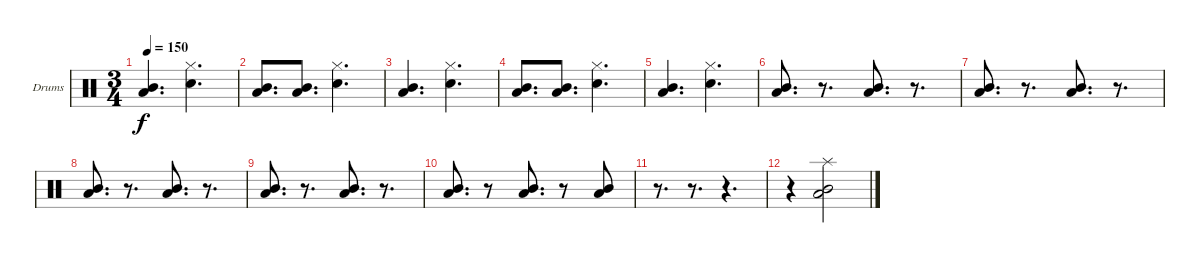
\defaultSystemsLayout 4
\bracketExtendMode groupsimilarinstruments
\firstSystemTrackNameOrientation horizontal
\otherSystemsTrackNameOrientation horizontal
\track ("Drumkit" "Drums") {instrument percussion}
\staff {score}
\articulation defaults
\ts (3 4)
\tempo 150
\clef neutral
\ks c
("Low Tom (hit)" "Mid Tom (hit)").4{d dy f} ("Snare (hit) 2" "Hi-Hat (closed)").4{d} |
("Low Tom (hit)" "Mid Tom (hit)").8{d} ("Mid Tom (hit)" "Low Tom (hit)").8{d} ("Snare (hit) 2" "Hi-Hat (closed)").4{d} |
("Low Tom (hit)" "Mid Tom (hit)").4{d} ("Snare (hit) 2" "Hi-Hat (closed)").4{d} |
("Low Tom (hit)" "Mid Tom (hit)").8{d} ("Mid Tom (hit)" "Low Tom (hit)").8{d} ("Snare (hit) 2" "Hi-Hat (closed)").4{d} |
("Low Tom (hit)" "Mid Tom (hit)").4{d} ("Snare (hit) 2" "Hi-Hat (closed)").4{d} |
("Mid Tom (hit)" "Low Tom (hit)").8{d} r.8{d} ("Low Tom (hit)" "Mid Tom (hit)").8{d} r.8{d} |
("Mid Tom (hit)" "Low Tom (hit)").8{d} r.8{d} ("Low Tom (hit)" "Mid Tom (hit)").8{d} r.8{d} |
("Mid Tom (hit)" "Low Tom (hit)").8{d} r.8{d} ("Low Tom (hit)" "Mid Tom (hit)").8{d} r.8{d} |
("Mid Tom (hit)" "Low Tom (hit)").8{d} r.8{d} ("Low Tom (hit)" "Mid Tom (hit)").8{d} r.8{d} |
("Low Tom (hit)" "Mid Tom (hit)").8{d} r.8 ("Low Tom (hit)" "Mid Tom (hit)").8{d} r.8 ("Low Tom (hit)" "Mid Tom (hit)").8 |
r.8{d} r.8{d} r.4{d} |
r.4 ("Mid Tom (hit)" "Low Tom (hit)" "Splash (hit)").2
